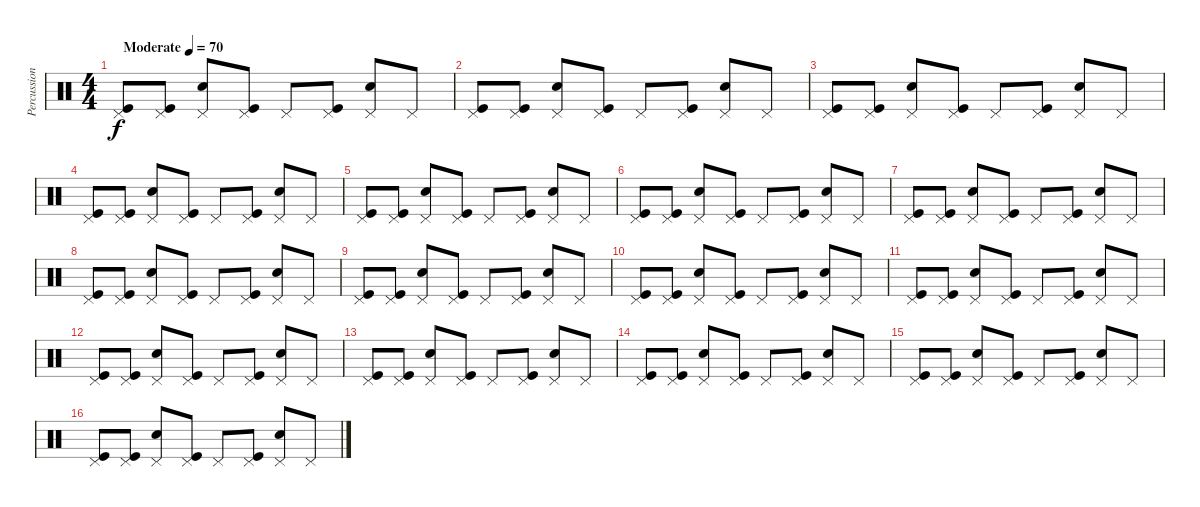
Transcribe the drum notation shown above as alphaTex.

\track ("Percussion" "Percussion") {instrument percussion}
\staff {score}
\articulation defaults
\ts (4 4)
\tempo (70 "Moderate")
\clef neutral
\ks c
("Pedal Hi-Hat (hit)" "Kick (hit)").8{dy f} ("Pedal Hi-Hat (hit)" "Kick (hit)").8 ("Pedal Hi-Hat (hit)" "Snare (hit) 2").8 ("Pedal Hi-Hat (hit)" "Kick (hit)").8 "Pedal Hi-Hat (hit)".8 ("Pedal Hi-Hat (hit)" "Kick (hit)").8 ("Pedal Hi-Hat (hit)" "Snare (hit) 2").8 "Pedal Hi-Hat (hit)".8 |
("Pedal Hi-Hat (hit)" "Kick (hit)").8 ("Pedal Hi-Hat (hit)" "Kick (hit)").8 ("Pedal Hi-Hat (hit)" "Snare (hit) 2").8 ("Pedal Hi-Hat (hit)" "Kick (hit)").8 "Pedal Hi-Hat (hit)".8 ("Pedal Hi-Hat (hit)" "Kick (hit)").8 ("Pedal Hi-Hat (hit)" "Snare (hit) 2").8 "Pedal Hi-Hat (hit)".8 |
("Pedal Hi-Hat (hit)" "Kick (hit)").8 ("Pedal Hi-Hat (hit)" "Kick (hit)").8 ("Pedal Hi-Hat (hit)" "Snare (hit) 2").8 ("Pedal Hi-Hat (hit)" "Kick (hit)").8 "Pedal Hi-Hat (hit)".8 ("Pedal Hi-Hat (hit)" "Kick (hit)").8 ("Pedal Hi-Hat (hit)" "Snare (hit) 2").8 "Pedal Hi-Hat (hit)".8 |
("Pedal Hi-Hat (hit)" "Kick (hit)").8 ("Pedal Hi-Hat (hit)" "Kick (hit)").8 ("Pedal Hi-Hat (hit)" "Snare (hit) 2").8 ("Pedal Hi-Hat (hit)" "Kick (hit)").8 "Pedal Hi-Hat (hit)".8 ("Pedal Hi-Hat (hit)" "Kick (hit)").8 ("Pedal Hi-Hat (hit)" "Snare (hit) 2").8 "Pedal Hi-Hat (hit)".8 |
("Pedal Hi-Hat (hit)" "Kick (hit)").8 ("Pedal Hi-Hat (hit)" "Kick (hit)").8 ("Pedal Hi-Hat (hit)" "Snare (hit) 2").8 ("Pedal Hi-Hat (hit)" "Kick (hit)").8 "Pedal Hi-Hat (hit)".8 ("Pedal Hi-Hat (hit)" "Kick (hit)").8 ("Pedal Hi-Hat (hit)" "Snare (hit) 2").8 "Pedal Hi-Hat (hit)".8 |
("Pedal Hi-Hat (hit)" "Kick (hit)").8 ("Pedal Hi-Hat (hit)" "Kick (hit)").8 ("Pedal Hi-Hat (hit)" "Snare (hit) 2").8 ("Pedal Hi-Hat (hit)" "Kick (hit)").8 "Pedal Hi-Hat (hit)".8 ("Pedal Hi-Hat (hit)" "Kick (hit)").8 ("Pedal Hi-Hat (hit)" "Snare (hit) 2").8 "Pedal Hi-Hat (hit)".8 |
("Pedal Hi-Hat (hit)" "Kick (hit)").8 ("Pedal Hi-Hat (hit)" "Kick (hit)").8 ("Pedal Hi-Hat (hit)" "Snare (hit) 2").8 ("Pedal Hi-Hat (hit)" "Kick (hit)").8 "Pedal Hi-Hat (hit)".8 ("Pedal Hi-Hat (hit)" "Kick (hit)").8 ("Pedal Hi-Hat (hit)" "Snare (hit) 2").8 "Pedal Hi-Hat (hit)".8 |
("Pedal Hi-Hat (hit)" "Kick (hit)").8 ("Pedal Hi-Hat (hit)" "Kick (hit)").8 ("Pedal Hi-Hat (hit)" "Snare (hit) 2").8 ("Pedal Hi-Hat (hit)" "Kick (hit)").8 "Pedal Hi-Hat (hit)".8 ("Pedal Hi-Hat (hit)" "Kick (hit)").8 ("Pedal Hi-Hat (hit)" "Snare (hit) 2").8 "Pedal Hi-Hat (hit)".8 |
("Pedal Hi-Hat (hit)" "Kick (hit)").8 ("Pedal Hi-Hat (hit)" "Kick (hit)").8 ("Pedal Hi-Hat (hit)" "Snare (hit) 2").8 ("Pedal Hi-Hat (hit)" "Kick (hit)").8 "Pedal Hi-Hat (hit)".8 ("Pedal Hi-Hat (hit)" "Kick (hit)").8 ("Pedal Hi-Hat (hit)" "Snare (hit) 2").8 "Pedal Hi-Hat (hit)".8 |
("Pedal Hi-Hat (hit)" "Kick (hit)").8 ("Pedal Hi-Hat (hit)" "Kick (hit)").8 ("Pedal Hi-Hat (hit)" "Snare (hit) 2").8 ("Pedal Hi-Hat (hit)" "Kick (hit)").8 "Pedal Hi-Hat (hit)".8 ("Pedal Hi-Hat (hit)" "Kick (hit)").8 ("Pedal Hi-Hat (hit)" "Snare (hit) 2").8 "Pedal Hi-Hat (hit)".8 |
("Pedal Hi-Hat (hit)" "Kick (hit)").8 ("Pedal Hi-Hat (hit)" "Kick (hit)").8 ("Pedal Hi-Hat (hit)" "Snare (hit) 2").8 ("Pedal Hi-Hat (hit)" "Kick (hit)").8 "Pedal Hi-Hat (hit)".8 ("Pedal Hi-Hat (hit)" "Kick (hit)").8 ("Pedal Hi-Hat (hit)" "Snare (hit) 2").8 "Pedal Hi-Hat (hit)".8 |
("Pedal Hi-Hat (hit)" "Kick (hit)").8 ("Pedal Hi-Hat (hit)" "Kick (hit)").8 ("Pedal Hi-Hat (hit)" "Snare (hit) 2").8 ("Pedal Hi-Hat (hit)" "Kick (hit)").8 "Pedal Hi-Hat (hit)".8 ("Pedal Hi-Hat (hit)" "Kick (hit)").8 ("Pedal Hi-Hat (hit)" "Snare (hit) 2").8 "Pedal Hi-Hat (hit)".8 |
("Pedal Hi-Hat (hit)" "Kick (hit)").8 ("Pedal Hi-Hat (hit)" "Kick (hit)").8 ("Pedal Hi-Hat (hit)" "Snare (hit) 2").8 ("Pedal Hi-Hat (hit)" "Kick (hit)").8 "Pedal Hi-Hat (hit)".8 ("Pedal Hi-Hat (hit)" "Kick (hit)").8 ("Pedal Hi-Hat (hit)" "Snare (hit) 2").8 "Pedal Hi-Hat (hit)".8 |
("Pedal Hi-Hat (hit)" "Kick (hit)").8 ("Pedal Hi-Hat (hit)" "Kick (hit)").8 ("Pedal Hi-Hat (hit)" "Snare (hit) 2").8 ("Pedal Hi-Hat (hit)" "Kick (hit)").8 "Pedal Hi-Hat (hit)".8 ("Pedal Hi-Hat (hit)" "Kick (hit)").8 ("Pedal Hi-Hat (hit)" "Snare (hit) 2").8 "Pedal Hi-Hat (hit)".8 |
("Pedal Hi-Hat (hit)" "Kick (hit)").8 ("Pedal Hi-Hat (hit)" "Kick (hit)").8 ("Pedal Hi-Hat (hit)" "Snare (hit) 2").8 ("Pedal Hi-Hat (hit)" "Kick (hit)").8 "Pedal Hi-Hat (hit)".8 ("Pedal Hi-Hat (hit)" "Kick (hit)").8 ("Pedal Hi-Hat (hit)" "Snare (hit) 2").8 "Pedal Hi-Hat (hit)".8 |
("Pedal Hi-Hat (hit)" "Kick (hit)").8 ("Pedal Hi-Hat (hit)" "Kick (hit)").8 ("Pedal Hi-Hat (hit)" "Snare (hit) 2").8 ("Pedal Hi-Hat (hit)" "Kick (hit)").8 "Pedal Hi-Hat (hit)".8 ("Pedal Hi-Hat (hit)" "Kick (hit)").8 ("Pedal Hi-Hat (hit)" "Snare (hit) 2").8 "Pedal Hi-Hat (hit)".8
